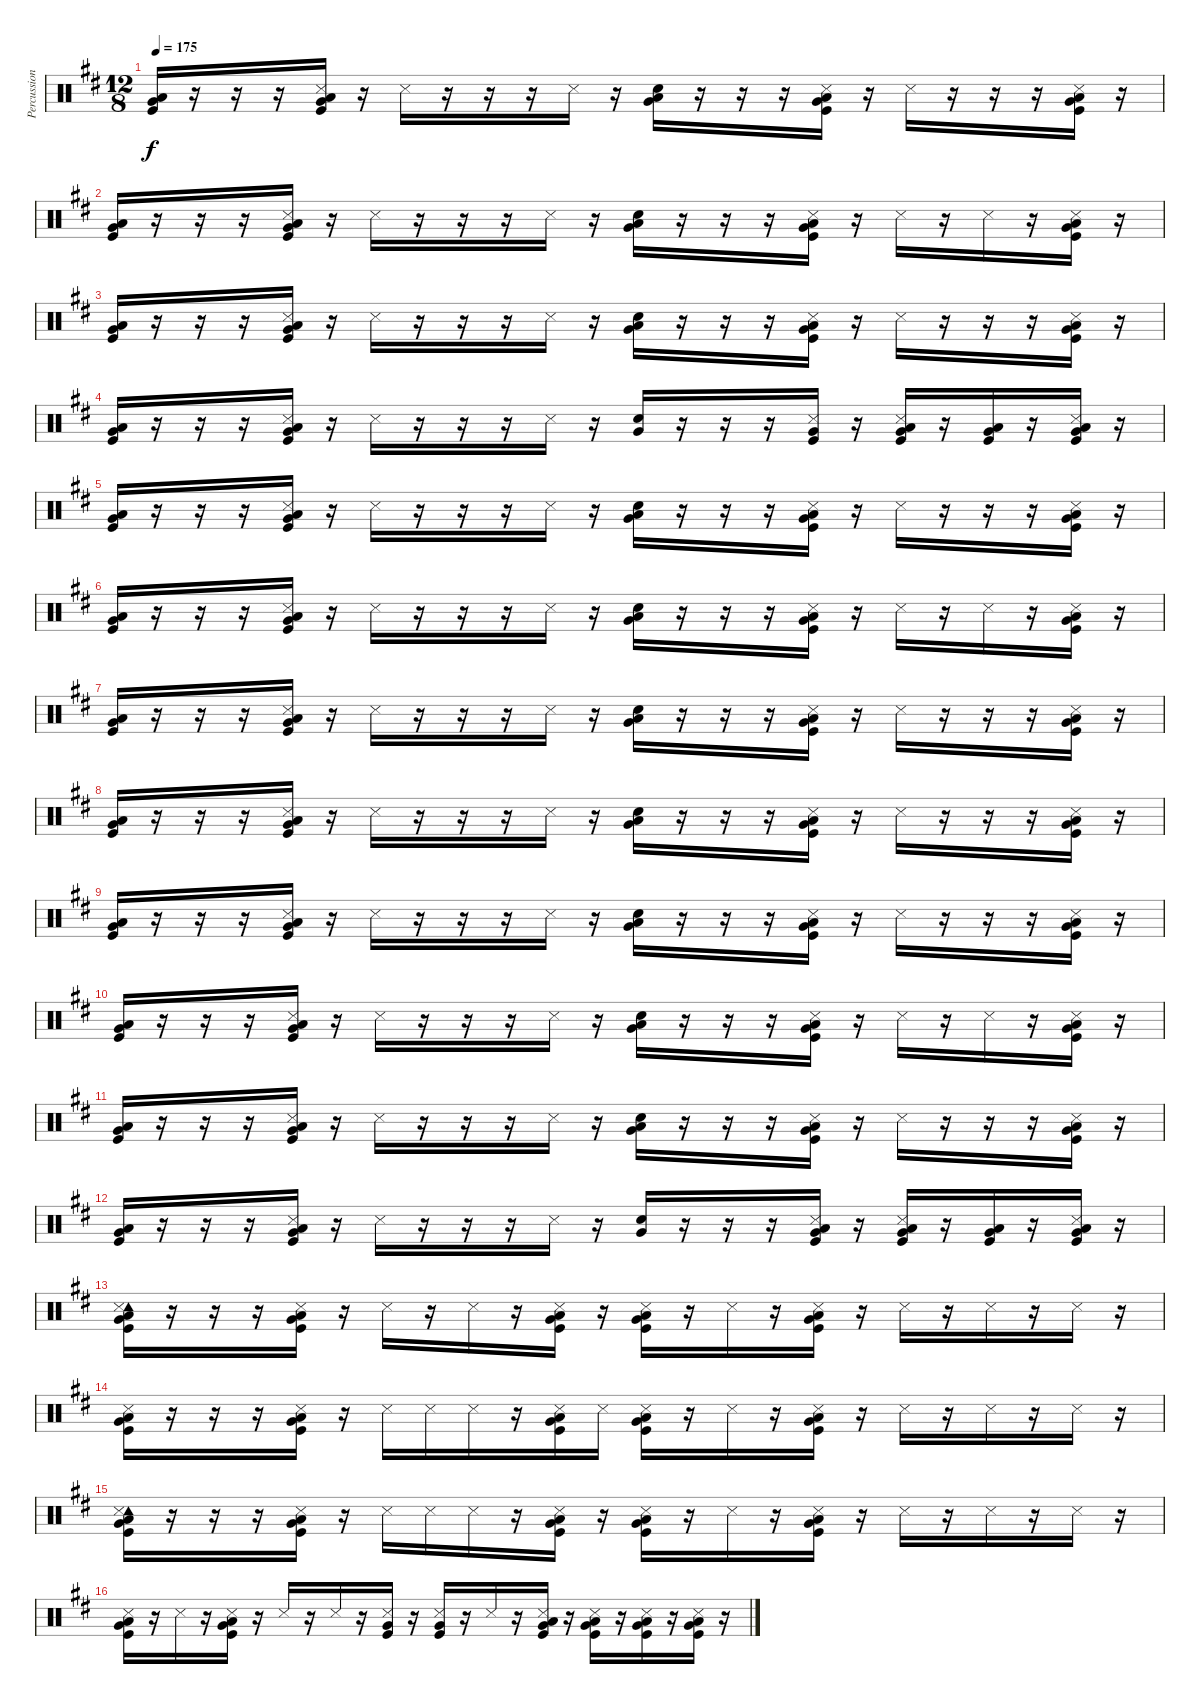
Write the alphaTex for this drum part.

\track ("Percussion" "Percussion") {instrument percussion}
\staff {score}
\articulation defaults
\ts (12 8)
\tempo 175
\clef neutral
\ks d
("Low Floor Tom (hit)" "Very Low Tom (hit)" "Kick (hit)").16{dy f} r.16 r.16 r.16 ("Snare (side stick) 3" "Low Floor Tom (hit)" "Very Low Tom (hit)" "Kick (hit)").16 r.16 "Snare (side stick) 3".16 r.16 r.16 r.16 "Snare (side stick) 3".16 r.16 ("Low Floor Tom (hit)" "Very Low Tom (hit)" "Snare (hit)").16 r.16 r.16 r.16 ("Snare (side stick) 3" "Low Floor Tom (hit)" "Very Low Tom (hit)" "Kick (hit)").16 r.16 "Snare (side stick) 3".16 r.16 r.16 r.16 ("Snare (side stick) 3" "Low Floor Tom (hit)" "Very Low Tom (hit)" "Kick (hit)").16 r.16 |
("Low Floor Tom (hit)" "Very Low Tom (hit)" "Kick (hit)").16 r.16 r.16 r.16 ("Snare (side stick) 3" "Low Floor Tom (hit)" "Very Low Tom (hit)" "Kick (hit)").16 r.16 "Snare (side stick) 3".16 r.16 r.16 r.16 "Snare (side stick) 3".16 r.16 ("Low Floor Tom (hit)" "Very Low Tom (hit)" "Snare (hit)").16 r.16 r.16 r.16 ("Snare (side stick) 3" "Low Floor Tom (hit)" "Very Low Tom (hit)" "Kick (hit)").16 r.16 "Snare (side stick) 3".16 r.16 "Snare (side stick) 3".16 r.16 ("Snare (side stick) 3" "Low Floor Tom (hit)" "Very Low Tom (hit)" "Kick (hit)").16 r.16 |
("Low Floor Tom (hit)" "Very Low Tom (hit)" "Kick (hit)").16 r.16 r.16 r.16 ("Snare (side stick) 3" "Low Floor Tom (hit)" "Very Low Tom (hit)" "Kick (hit)").16 r.16 "Snare (side stick) 3".16 r.16 r.16 r.16 "Snare (side stick) 3".16 r.16 ("Low Floor Tom (hit)" "Very Low Tom (hit)" "Snare (hit)").16 r.16 r.16 r.16 ("Snare (side stick) 3" "Low Floor Tom (hit)" "Very Low Tom (hit)" "Kick (hit)").16 r.16 "Snare (side stick) 3".16 r.16 r.16 r.16 ("Snare (side stick) 3" "Low Floor Tom (hit)" "Very Low Tom (hit)" "Kick (hit)").16 r.16 |
("Low Floor Tom (hit)" "Very Low Tom (hit)" "Kick (hit)").16 r.16 r.16 r.16 ("Snare (side stick) 3" "Low Floor Tom (hit)" "Very Low Tom (hit)" "Kick (hit)").16 r.16 "Snare (side stick) 3".16 r.16 r.16 r.16 "Snare (side stick) 3".16 r.16 ("Very Low Tom (hit)" "Snare (hit)").16 r.16 r.16 r.16 ("Snare (side stick) 3" "Very Low Tom (hit)" "Kick (hit)").16 r.16 ("Snare (side stick) 3" "Low Floor Tom (hit)" "Very Low Tom (hit)" "Kick (hit)").16 r.16 ("Low Floor Tom (hit)" "Very Low Tom (hit)" "Kick (hit)").16 r.16 ("Snare (side stick) 3" "Low Floor Tom (hit)" "Very Low Tom (hit)" "Kick (hit)").16 r.16 |
("Low Floor Tom (hit)" "Very Low Tom (hit)" "Kick (hit)").16 r.16 r.16 r.16 ("Snare (side stick) 3" "Low Floor Tom (hit)" "Very Low Tom (hit)" "Kick (hit)").16 r.16 "Snare (side stick) 3".16 r.16 r.16 r.16 "Snare (side stick) 3".16 r.16 ("Low Floor Tom (hit)" "Very Low Tom (hit)" "Snare (hit)").16 r.16 r.16 r.16 ("Snare (side stick) 3" "Low Floor Tom (hit)" "Very Low Tom (hit)" "Kick (hit)").16 r.16 "Snare (side stick) 3".16 r.16 r.16 r.16 ("Snare (side stick) 3" "Low Floor Tom (hit)" "Very Low Tom (hit)" "Kick (hit)").16 r.16 |
("Low Floor Tom (hit)" "Very Low Tom (hit)" "Kick (hit)").16 r.16 r.16 r.16 ("Snare (side stick) 3" "Low Floor Tom (hit)" "Very Low Tom (hit)" "Kick (hit)").16 r.16 "Snare (side stick) 3".16 r.16 r.16 r.16 "Snare (side stick) 3".16 r.16 ("Low Floor Tom (hit)" "Very Low Tom (hit)" "Snare (hit)").16 r.16 r.16 r.16 ("Snare (side stick) 3" "Low Floor Tom (hit)" "Very Low Tom (hit)" "Kick (hit)").16 r.16 "Snare (side stick) 3".16 r.16 "Snare (side stick) 3".16 r.16 ("Snare (side stick) 3" "Low Floor Tom (hit)" "Very Low Tom (hit)" "Kick (hit)").16 r.16 |
("Low Floor Tom (hit)" "Very Low Tom (hit)" "Kick (hit)").16 r.16 r.16 r.16 ("Snare (side stick) 3" "Low Floor Tom (hit)" "Very Low Tom (hit)" "Kick (hit)").16 r.16 "Snare (side stick) 3".16 r.16 r.16 r.16 "Snare (side stick) 3".16 r.16 ("Low Floor Tom (hit)" "Very Low Tom (hit)" "Snare (hit)").16 r.16 r.16 r.16 ("Snare (side stick) 3" "Low Floor Tom (hit)" "Very Low Tom (hit)" "Kick (hit)").16 r.16 "Snare (side stick) 3".16 r.16 r.16 r.16 ("Snare (side stick) 3" "Low Floor Tom (hit)" "Very Low Tom (hit)" "Kick (hit)").16 r.16 |
("Low Floor Tom (hit)" "Very Low Tom (hit)" "Kick (hit)").16 r.16 r.16 r.16 ("Snare (side stick) 3" "Low Floor Tom (hit)" "Very Low Tom (hit)" "Kick (hit)").16 r.16 "Snare (side stick) 3".16 r.16 r.16 r.16 "Snare (side stick) 3".16 r.16 ("Low Floor Tom (hit)" "Very Low Tom (hit)" "Snare (hit)").16 r.16 r.16 r.16 ("Snare (side stick) 3" "Low Floor Tom (hit)" "Very Low Tom (hit)" "Kick (hit)").16 r.16 "Snare (side stick) 3".16 r.16 r.16 r.16 ("Snare (side stick) 3" "Low Floor Tom (hit)" "Very Low Tom (hit)" "Kick (hit)").16 r.16 |
("Low Floor Tom (hit)" "Very Low Tom (hit)" "Kick (hit)").16 r.16 r.16 r.16 ("Snare (side stick) 3" "Low Floor Tom (hit)" "Very Low Tom (hit)" "Kick (hit)").16 r.16 "Snare (side stick) 3".16 r.16 r.16 r.16 "Snare (side stick) 3".16 r.16 ("Low Floor Tom (hit)" "Very Low Tom (hit)" "Snare (hit)").16 r.16 r.16 r.16 ("Snare (side stick) 3" "Low Floor Tom (hit)" "Very Low Tom (hit)" "Kick (hit)").16 r.16 "Snare (side stick) 3".16 r.16 r.16 r.16 ("Snare (side stick) 3" "Low Floor Tom (hit)" "Very Low Tom (hit)" "Kick (hit)").16 r.16 |
("Low Floor Tom (hit)" "Very Low Tom (hit)" "Kick (hit)").16 r.16 r.16 r.16 ("Snare (side stick) 3" "Low Floor Tom (hit)" "Very Low Tom (hit)" "Kick (hit)").16 r.16 "Snare (side stick) 3".16 r.16 r.16 r.16 "Snare (side stick) 3".16 r.16 ("Low Floor Tom (hit)" "Very Low Tom (hit)" "Snare (hit)").16 r.16 r.16 r.16 ("Snare (side stick) 3" "Low Floor Tom (hit)" "Very Low Tom (hit)" "Kick (hit)").16 r.16 "Snare (side stick) 3".16 r.16 "Snare (side stick) 3".16 r.16 ("Snare (side stick) 3" "Low Floor Tom (hit)" "Very Low Tom (hit)" "Kick (hit)").16 r.16 |
("Low Floor Tom (hit)" "Very Low Tom (hit)" "Kick (hit)").16 r.16 r.16 r.16 ("Snare (side stick) 3" "Low Floor Tom (hit)" "Very Low Tom (hit)" "Kick (hit)").16 r.16 "Snare (side stick) 3".16 r.16 r.16 r.16 "Snare (side stick) 3".16 r.16 ("Low Floor Tom (hit)" "Very Low Tom (hit)" "Snare (hit)").16 r.16 r.16 r.16 ("Snare (side stick) 3" "Low Floor Tom (hit)" "Very Low Tom (hit)" "Kick (hit)").16 r.16 "Snare (side stick) 3".16 r.16 r.16 r.16 ("Snare (side stick) 3" "Low Floor Tom (hit)" "Very Low Tom (hit)" "Kick (hit)").16 r.16 |
("Low Floor Tom (hit)" "Very Low Tom (hit)" "Kick (hit)").16 r.16 r.16 r.16 ("Snare (side stick) 3" "Low Floor Tom (hit)" "Very Low Tom (hit)" "Kick (hit)").16 r.16 "Snare (side stick) 3".16 r.16 r.16 r.16 "Snare (side stick) 3".16 r.16 ("Very Low Tom (hit)" "Snare (hit)").16 r.16 r.16 r.16 ("Snare (side stick) 3" "Low Floor Tom (hit)" "Very Low Tom (hit)" "Kick (hit)").16 r.16 ("Snare (side stick) 3" "Low Floor Tom (hit)" "Very Low Tom (hit)" "Kick (hit)").16 r.16 ("Low Floor Tom (hit)" "Very Low Tom (hit)" "Kick (hit)").16 r.16 ("Snare (side stick) 3" "Low Floor Tom (hit)" "Very Low Tom (hit)" "Kick (hit)").16 r.16 |
("Tambourine (hit)" "Snare (side stick) 3" "Low Floor Tom (hit)" "Very Low Tom (hit)" "Kick (hit)").16 r.16 r.16 r.16 ("Snare (side stick) 3" "Low Floor Tom (hit)" "Very Low Tom (hit)" "Kick (hit)").16 r.16 "Snare (side stick) 3".16 r.16 "Snare (side stick) 3".16 r.16 ("Snare (side stick) 3" "Low Floor Tom (hit)" "Very Low Tom (hit)" "Kick (hit)").16 r.16 ("Snare (side stick) 3" "Low Floor Tom (hit)" "Very Low Tom (hit)" "Kick (hit)").16 r.16 "Snare (side stick) 3".16 r.16 ("Snare (side stick) 3" "Low Floor Tom (hit)" "Very Low Tom (hit)" "Kick (hit)").16 r.16 "Snare (side stick) 3".16 r.16 "Snare (side stick) 3".16 r.16 "Snare (side stick) 3".16 r.16 |
("Snare (side stick) 3" "Low Floor Tom (hit)" "Very Low Tom (hit)" "Kick (hit)").16 r.16 r.16 r.16 ("Snare (side stick) 3" "Low Floor Tom (hit)" "Very Low Tom (hit)" "Kick (hit)").16 r.16 "Snare (side stick) 3".16 "Snare (side stick) 3".16 "Snare (side stick) 3".16 r.16 ("Snare (side stick) 3" "Low Floor Tom (hit)" "Very Low Tom (hit)" "Kick (hit)").16 "Snare (side stick) 3".16 ("Snare (side stick) 3" "Low Floor Tom (hit)" "Very Low Tom (hit)" "Kick (hit)").16 r.16 "Snare (side stick) 3".16 r.16 ("Snare (side stick) 3" "Low Floor Tom (hit)" "Very Low Tom (hit)" "Kick (hit)").16 r.16 "Snare (side stick) 3".16 r.16 "Snare (side stick) 3".16 r.16 "Snare (side stick) 3".16 r.16 |
("Tambourine (hit)" "Snare (side stick) 3" "Low Floor Tom (hit)" "Very Low Tom (hit)" "Kick (hit)").16 r.16 r.16 r.16 ("Snare (side stick) 3" "Low Floor Tom (hit)" "Very Low Tom (hit)" "Kick (hit)").16 r.16 "Snare (side stick) 3".16 "Snare (side stick) 3".16 "Snare (side stick) 3".16 r.16 ("Snare (side stick) 3" "Low Floor Tom (hit)" "Very Low Tom (hit)" "Kick (hit)").16 r.16 ("Snare (side stick) 3" "Low Floor Tom (hit)" "Very Low Tom (hit)" "Kick (hit)").16 r.16 "Snare (side stick) 3".16 r.16 ("Snare (side stick) 3" "Low Floor Tom (hit)" "Very Low Tom (hit)" "Kick (hit)").16 r.16 "Snare (side stick) 3".16 r.16 "Snare (side stick) 3".16 r.16 "Snare (side stick) 3".16 r.16 |
("Snare (side stick) 3" "Low Floor Tom (hit)" "Very Low Tom (hit)" "Kick (hit)").16 r.16 "Snare (side stick) 3".16 r.16 ("Snare (side stick) 3" "Low Floor Tom (hit)" "Very Low Tom (hit)" "Kick (hit)").16 r.16 "Snare (side stick) 3".16 r.16 "Snare (side stick) 3".16 r.16 ("Snare (side stick) 3" "Very Low Tom (hit)" "Kick (hit)").16 r.16 ("Snare (side stick) 3" "Very Low Tom (hit)" "Kick (hit)").16 r.16 "Snare (side stick) 3".16 r.16 ("Snare (side stick) 3" "Low Floor Tom (hit)" "Very Low Tom (hit)" "Kick (hit)").16 r.16 ("Snare (side stick) 3" "Low Floor Tom (hit)" "Very Low Tom (hit)" "Kick (hit)").16 r.16 ("Snare (side stick) 3" "Low Floor Tom (hit)" "Very Low Tom (hit)" "Kick (hit)").16 r.16 ("Snare (side stick) 3" "Low Floor Tom (hit)" "Very Low Tom (hit)" "Kick (hit)").16 r.16
